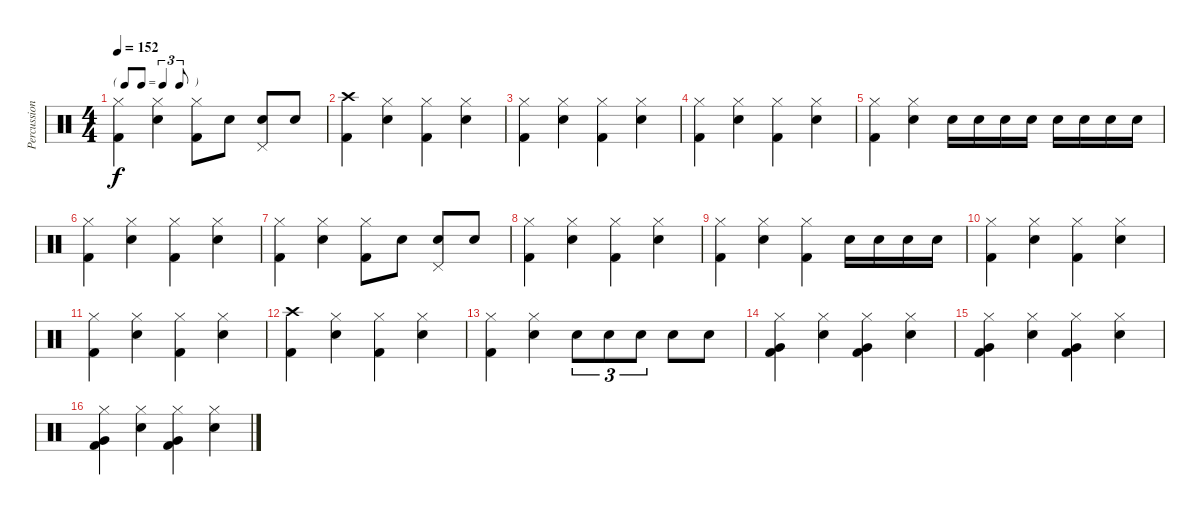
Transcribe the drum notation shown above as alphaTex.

\track ("Percussion" "Percussion") {instrument percussion}
\staff {score}
\articulation defaults
\ts (4 4)
\tf triplet8th
\tempo 152
\clef neutral
\ks c
("Hi-Hat (closed)" "Kick (hit) 2").4{dy f} ("Hi-Hat (closed)" "Snare (hit) 2").4 ("Hi-Hat (closed)" "Kick (hit) 2").8 "Snare (hit) 2".8 ("Snare (hit) 2" "Pedal Hi-Hat (hit)").8 "Snare (hit) 2".8 |
("Crash high (hit)" "Kick (hit) 2").4 ("Hi-Hat (closed)" "Snare (hit) 2").4 ("Hi-Hat (closed)" "Kick (hit) 2").4 ("Hi-Hat (closed)" "Snare (hit) 2").4 |
("Hi-Hat (closed)" "Kick (hit) 2").4 ("Hi-Hat (closed)" "Snare (hit) 2").4 ("Hi-Hat (closed)" "Kick (hit) 2").4 ("Hi-Hat (closed)" "Snare (hit) 2").4 |
("Hi-Hat (closed)" "Kick (hit) 2").4 ("Hi-Hat (closed)" "Snare (hit) 2").4 ("Hi-Hat (closed)" "Kick (hit) 2").4 ("Hi-Hat (closed)" "Snare (hit) 2").4 |
("Hi-Hat (closed)" "Kick (hit) 2").4 ("Hi-Hat (closed)" "Snare (hit) 2").4 "Snare (hit) 2".16 "Snare (hit) 2".16 "Snare (hit) 2".16 "Snare (hit) 2".16 "Snare (hit) 2".16 "Snare (hit) 2".16 "Snare (hit) 2".16 "Snare (hit) 2".16 |
("Hi-Hat (closed)" "Kick (hit) 2").4 ("Hi-Hat (closed)" "Snare (hit) 2").4 ("Hi-Hat (closed)" "Kick (hit) 2").4 ("Hi-Hat (closed)" "Snare (hit) 2").4 |
("Hi-Hat (closed)" "Kick (hit) 2").4 ("Hi-Hat (closed)" "Snare (hit) 2").4 ("Hi-Hat (closed)" "Kick (hit) 2").8 "Snare (hit) 2".8 ("Snare (hit) 2" "Pedal Hi-Hat (hit)").8 "Snare (hit) 2".8 |
("Hi-Hat (closed)" "Kick (hit) 2").4 ("Hi-Hat (closed)" "Snare (hit) 2").4 ("Hi-Hat (closed)" "Kick (hit) 2").4 ("Hi-Hat (closed)" "Snare (hit) 2").4 |
("Hi-Hat (closed)" "Kick (hit) 2").4 ("Hi-Hat (closed)" "Snare (hit) 2").4 ("Hi-Hat (closed)" "Kick (hit) 2").4 "Snare (hit) 2".16 "Snare (hit) 2".16 "Snare (hit) 2".16 "Snare (hit) 2".16 |
("Hi-Hat (closed)" "Kick (hit) 2").4 ("Hi-Hat (closed)" "Snare (hit) 2").4 ("Hi-Hat (closed)" "Kick (hit) 2").4 ("Hi-Hat (closed)" "Snare (hit) 2").4 |
("Hi-Hat (closed)" "Kick (hit) 2").4 ("Hi-Hat (closed)" "Snare (hit) 2").4 ("Hi-Hat (closed)" "Kick (hit) 2").4 ("Hi-Hat (closed)" "Snare (hit) 2").4 |
("Crash high (hit)" "Kick (hit) 2").4 ("Hi-Hat (closed)" "Snare (hit) 2").4 ("Hi-Hat (closed)" "Kick (hit) 2").4 ("Hi-Hat (closed)" "Snare (hit) 2").4 |
("Hi-Hat (closed)" "Kick (hit) 2").4 ("Hi-Hat (closed)" "Snare (hit) 2").4 "Snare (hit) 2".8{tu (3 2)} "Snare (hit) 2".8{tu (3 2)} "Snare (hit) 2".8{tu (3 2)} "Snare (hit) 2".8 "Snare (hit) 2".8 |
("Hi-Hat (closed)" "Very Low Tom (hit)" "Kick (hit) 2").4 ("Hi-Hat (closed)" "Snare (hit) 2").4 ("Hi-Hat (closed)" "Kick (hit) 2" "Very Low Tom (hit)").4 ("Hi-Hat (closed)" "Snare (hit) 2").4 |
("Hi-Hat (closed)" "Very Low Tom (hit)" "Kick (hit) 2").4 ("Hi-Hat (closed)" "Snare (hit) 2").4 ("Hi-Hat (closed)" "Kick (hit) 2" "Very Low Tom (hit)").4 ("Hi-Hat (closed)" "Snare (hit) 2").4 |
("Hi-Hat (closed)" "Very Low Tom (hit)" "Kick (hit) 2").4 ("Hi-Hat (closed)" "Snare (hit) 2").4 ("Hi-Hat (closed)" "Kick (hit) 2" "Very Low Tom (hit)").4 ("Hi-Hat (closed)" "Snare (hit) 2").4
